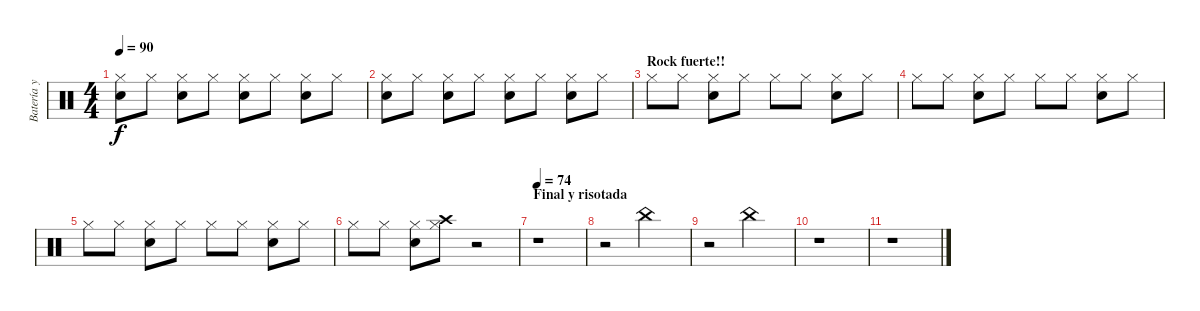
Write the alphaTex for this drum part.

\track ("Batería y risa" "Batería y ") {instrument percussion}
\staff {score}
\articulation defaults
\ts (4 4)
\tempo 90
\clef neutral
\ks c
("Hi-Hat (closed)" "Snare (hit) 2").8{dy f} "Hi-Hat (closed)".8 ("Hi-Hat (closed)" "Snare (hit) 2").8 "Hi-Hat (closed)".8 ("Hi-Hat (closed)" "Snare (hit) 2").8 "Hi-Hat (closed)".8 ("Hi-Hat (closed)" "Snare (hit) 2").8 "Hi-Hat (closed)".8 |
("Hi-Hat (closed)" "Snare (hit) 2").8 "Hi-Hat (closed)".8 ("Hi-Hat (closed)" "Snare (hit) 2").8 "Hi-Hat (closed)".8 ("Hi-Hat (closed)" "Snare (hit) 2").8 "Hi-Hat (closed)".8 ("Hi-Hat (closed)" "Snare (hit) 2").8 "Hi-Hat (closed)".8 |
\section ("" "Rock fuerte!!")
"Hi-Hat (closed)".8 "Hi-Hat (closed)".8 ("Hi-Hat (closed)" "Snare (hit) 2").8 "Hi-Hat (closed)".8 "Hi-Hat (closed)".8 "Hi-Hat (closed)".8 ("Hi-Hat (closed)" "Snare (hit) 2").8 "Hi-Hat (closed)".8 |
"Hi-Hat (closed)".8 "Hi-Hat (closed)".8 ("Hi-Hat (closed)" "Snare (hit) 2").8 "Hi-Hat (closed)".8 "Hi-Hat (closed)".8 "Hi-Hat (closed)".8 ("Hi-Hat (closed)" "Snare (hit) 2").8 "Hi-Hat (closed)".8 |
"Hi-Hat (closed)".8 "Hi-Hat (closed)".8 ("Hi-Hat (closed)" "Snare (hit) 2").8 "Hi-Hat (closed)".8 "Hi-Hat (closed)".8 "Hi-Hat (closed)".8 ("Hi-Hat (closed)" "Snare (hit) 2").8 "Hi-Hat (closed)".8 |
"Hi-Hat (closed)".8 "Hi-Hat (closed)".8 ("Hi-Hat (closed)" "Snare (hit) 2").8 ("Hi-Hat (closed)" "Crash high (hit)").8 r.2 |
\section ("" "Final y risotada")
\tempo 74
r.1 |
r.2 "China (hit)".2 |
r.2 "China (hit)".2 |
r.1 |
r.1
